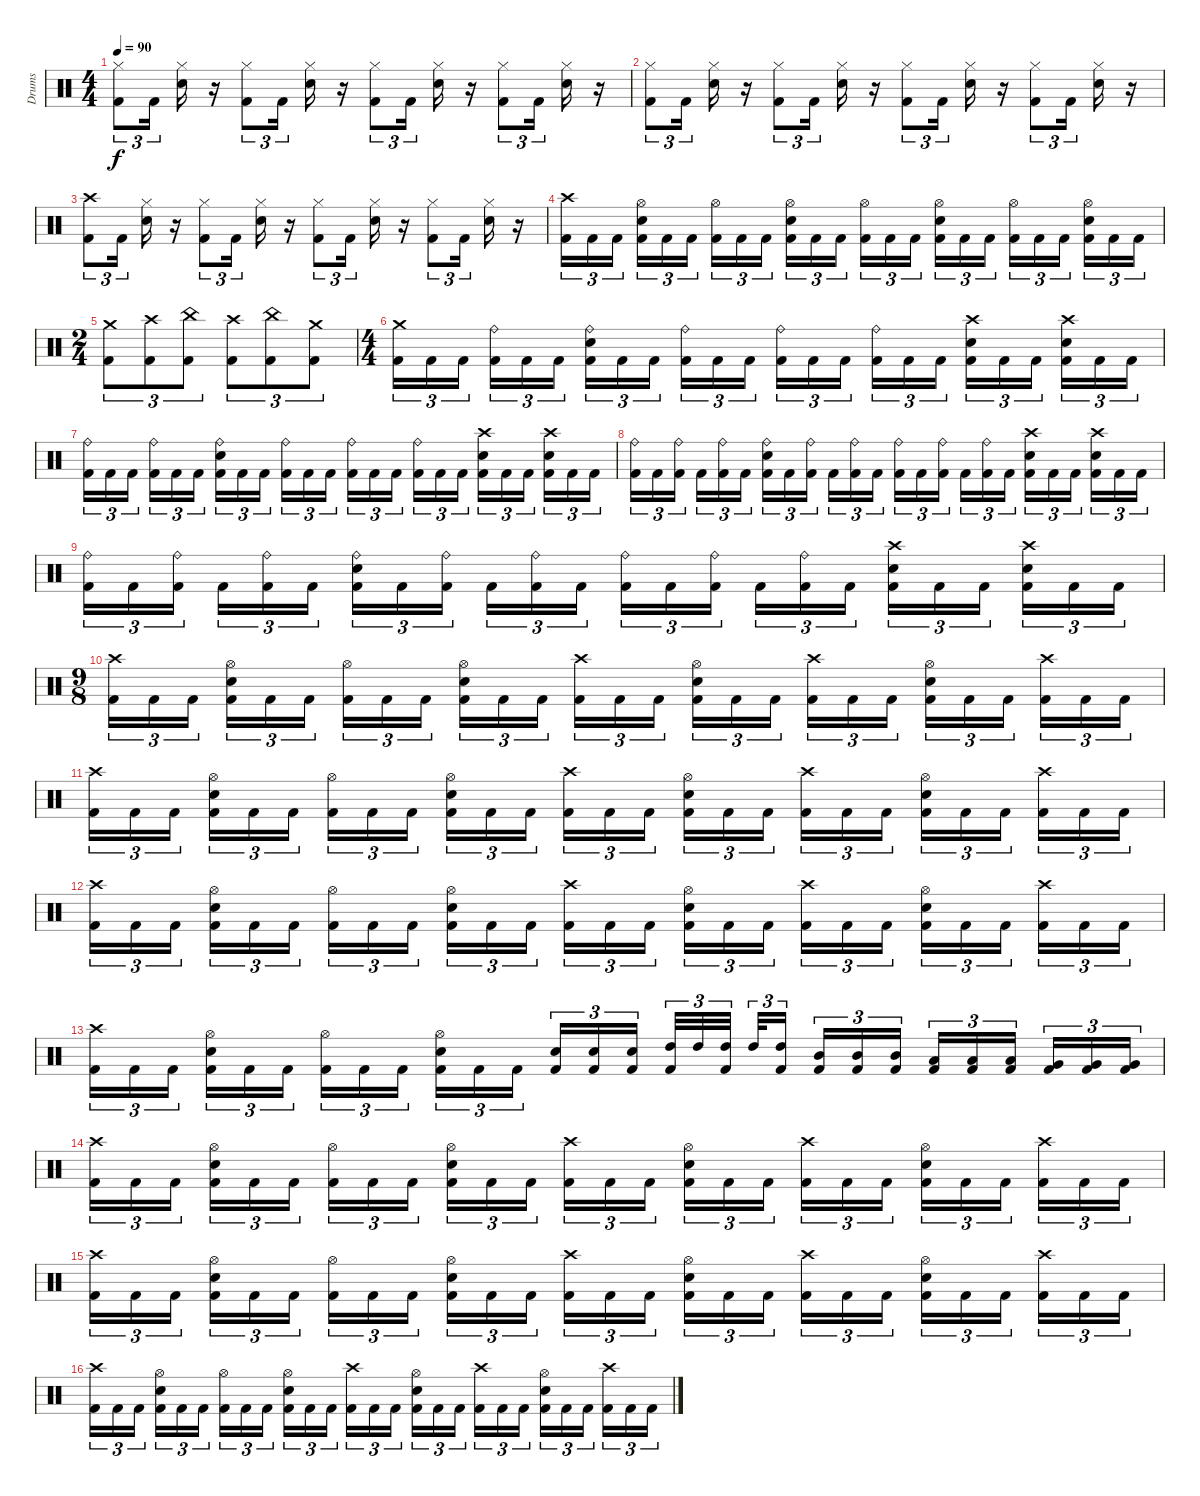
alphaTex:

\track ("Drums" "Drums") {instrument percussion}
\staff {score}
\articulation defaults
\ts (4 4)
\tempo 90
\clef neutral
\ks c
("Kick (hit) 2" "Hi-Hat (closed)").8{tu (3 2) dy f} "Kick (hit) 2".16{tu (3 2)} ("Electric Snare (hit)" "Hi-Hat (closed)").16 r.16 ("Kick (hit) 2" "Hi-Hat (closed)").8{tu (3 2)} "Kick (hit) 2".16{tu (3 2)} ("Electric Snare (hit)" "Hi-Hat (closed)").16 r.16 ("Kick (hit) 2" "Hi-Hat (closed)").8{tu (3 2)} "Kick (hit) 2".16{tu (3 2)} ("Electric Snare (hit)" "Hi-Hat (closed)").16 r.16 ("Kick (hit) 2" "Hi-Hat (closed)").8{tu (3 2)} "Kick (hit) 2".16{tu (3 2)} ("Electric Snare (hit)" "Hi-Hat (closed)").16 r.16 |
("Hi-Hat (closed)" "Kick (hit) 2").8{tu (3 2)} "Kick (hit) 2".16{tu (3 2)} ("Hi-Hat (closed)" "Electric Snare (hit)").16 r.16 ("Hi-Hat (closed)" "Kick (hit) 2").8{tu (3 2)} "Kick (hit) 2".16{tu (3 2)} ("Hi-Hat (closed)" "Electric Snare (hit)").16 r.16 ("Hi-Hat (closed)" "Kick (hit) 2").8{tu (3 2)} "Kick (hit) 2".16{tu (3 2)} ("Hi-Hat (closed)" "Electric Snare (hit)").16 r.16 ("Hi-Hat (closed)" "Kick (hit) 2").8{tu (3 2)} "Kick (hit) 2".16{tu (3 2)} ("Hi-Hat (closed)" "Electric Snare (hit)").16 r.16 |
("Kick (hit) 2" "Crash high (hit)").8{tu (3 2)} "Kick (hit) 2".16{tu (3 2)} ("Electric Snare (hit)" "Hi-Hat (closed)").16 r.16 ("Kick (hit) 2" "Hi-Hat (closed)").8{tu (3 2)} "Kick (hit) 2".16{tu (3 2)} ("Electric Snare (hit)" "Hi-Hat (closed)").16 r.16 ("Kick (hit) 2" "Hi-Hat (closed)").8{tu (3 2)} "Kick (hit) 2".16{tu (3 2)} ("Electric Snare (hit)" "Hi-Hat (closed)").16 r.16 ("Kick (hit) 2" "Hi-Hat (closed)").8{tu (3 2)} "Kick (hit) 2".16{tu (3 2)} ("Electric Snare (hit)" "Hi-Hat (closed)").16 r.16 |
("Crash high (hit)" "Kick (hit) 2").16{tu (3 2)} "Kick (hit) 2".16{tu (3 2)} "Kick (hit) 2".16{tu (3 2) beam splitsecondary} ("Electric Snare (hit)" "Hi-Hat (open)" "Kick (hit) 2").16{tu (3 2)} "Kick (hit) 2".16{tu (3 2)} "Kick (hit) 2".16{tu (3 2)} ("Hi-Hat (open)" "Kick (hit) 2").16{tu (3 2)} "Kick (hit) 2".16{tu (3 2)} "Kick (hit) 2".16{tu (3 2) beam splitsecondary} ("Electric Snare (hit)" "Hi-Hat (open)" "Kick (hit) 2").16{tu (3 2)} "Kick (hit) 2".16{tu (3 2)} "Kick (hit) 2".16{tu (3 2)} ("Hi-Hat (open)" "Kick (hit) 2").16{tu (3 2)} "Kick (hit) 2".16{tu (3 2)} "Kick (hit) 2".16{tu (3 2) beam splitsecondary} ("Electric Snare (hit)" "Hi-Hat (open)" "Kick (hit) 2").16{tu (3 2)} "Kick (hit) 2".16{tu (3 2)} "Kick (hit) 2".16{tu (3 2)} ("Hi-Hat (open)" "Kick (hit) 2").16{tu (3 2)} "Kick (hit) 2".16{tu (3 2)} "Kick (hit) 2".16{tu (3 2) beam splitsecondary} ("Electric Snare (hit)" "Hi-Hat (open)" "Kick (hit) 2").16{tu (3 2)} "Kick (hit) 2".16{tu (3 2)} "Kick (hit) 2".16{tu (3 2)} |
\ts (2 4)
("Crash medium (hit)" "Kick (hit) 2").8{tu (3 2)} ("Crash high (hit)" "Kick (hit) 2").8{tu (3 2)} ("China (hit)" "Kick (hit) 2").8{tu (3 2)} ("Crash high (hit)" "Kick (hit) 2").8{tu (3 2)} ("China (hit)" "Kick (hit) 2").8{tu (3 2)} ("Crash medium (hit)" "Kick (hit) 2").8{tu (3 2)} |
\ts (4 4)
("Crash medium (hit)" "Kick (hit) 2").16{tu (3 2)} "Kick (hit) 2".16{tu (3 2)} "Kick (hit) 2".16{tu (3 2) beam splitsecondary} ("Ride (bell)" "Kick (hit) 2").16{tu (3 2)} "Kick (hit) 2".16{tu (3 2)} "Kick (hit) 2".16{tu (3 2)} ("Ride (bell)" "Electric Snare (hit)" "Kick (hit) 2").16{tu (3 2)} "Kick (hit) 2".16{tu (3 2)} "Kick (hit) 2".16{tu (3 2) beam splitsecondary} ("Ride (bell)" "Kick (hit) 2").16{tu (3 2)} "Kick (hit) 2".16{tu (3 2)} "Kick (hit) 2".16{tu (3 2)} ("Ride (bell)" "Kick (hit) 2").16{tu (3 2)} "Kick (hit) 2".16{tu (3 2)} "Kick (hit) 2".16{tu (3 2) beam splitsecondary} ("Ride (bell)" "Kick (hit) 2").16{tu (3 2)} "Kick (hit) 2".16{tu (3 2)} "Kick (hit) 2".16{tu (3 2)} ("Electric Snare (hit)" "Kick (hit) 2" "Crash high (hit)").16{tu (3 2)} "Kick (hit) 2".16{tu (3 2)} "Kick (hit) 2".16{tu (3 2) beam splitsecondary} ("Kick (hit) 2" "Crash high (hit)" "Electric Snare (hit)").16{tu (3 2)} "Kick (hit) 2".16{tu (3 2)} "Kick (hit) 2".16{tu (3 2)} |
("Ride (bell)" "Kick (hit) 2").16{tu (3 2)} "Kick (hit) 2".16{tu (3 2)} "Kick (hit) 2".16{tu (3 2) beam splitsecondary} ("Kick (hit) 2" "Ride (bell)").16{tu (3 2)} "Kick (hit) 2".16{tu (3 2)} "Kick (hit) 2".16{tu (3 2)} ("Kick (hit) 2" "Electric Snare (hit)" "Ride (bell)").16{tu (3 2)} "Kick (hit) 2".16{tu (3 2)} "Kick (hit) 2".16{tu (3 2) beam splitsecondary} ("Kick (hit) 2" "Ride (bell)").16{tu (3 2)} "Kick (hit) 2".16{tu (3 2)} "Kick (hit) 2".16{tu (3 2)} ("Kick (hit) 2" "Ride (bell)").16{tu (3 2)} "Kick (hit) 2".16{tu (3 2)} "Kick (hit) 2".16{tu (3 2) beam splitsecondary} ("Kick (hit) 2" "Ride (bell)").16{tu (3 2)} "Kick (hit) 2".16{tu (3 2)} "Kick (hit) 2".16{tu (3 2)} ("Crash high (hit)" "Kick (hit) 2" "Electric Snare (hit)").16{tu (3 2)} "Kick (hit) 2".16{tu (3 2)} "Kick (hit) 2".16{tu (3 2) beam splitsecondary} ("Electric Snare (hit)" "Crash high (hit)" "Kick (hit) 2").16{tu (3 2)} "Kick (hit) 2".16{tu (3 2)} "Kick (hit) 2".16{tu (3 2)} |
("Kick (hit) 2" "Ride (bell)").16{tu (3 2)} "Kick (hit) 2".16{tu (3 2)} ("Kick (hit) 2" "Ride (bell)").16{tu (3 2) beam splitsecondary} "Kick (hit) 2".16{tu (3 2)} ("Kick (hit) 2" "Ride (bell)").16{tu (3 2)} "Kick (hit) 2".16{tu (3 2)} ("Kick (hit) 2" "Ride (bell)" "Electric Snare (hit)").16{tu (3 2)} "Kick (hit) 2".16{tu (3 2)} ("Kick (hit) 2" "Ride (bell)").16{tu (3 2) beam splitsecondary} "Kick (hit) 2".16{tu (3 2)} ("Kick (hit) 2" "Ride (bell)").16{tu (3 2)} "Kick (hit) 2".16{tu (3 2)} ("Kick (hit) 2" "Ride (bell)").16{tu (3 2)} "Kick (hit) 2".16{tu (3 2)} ("Kick (hit) 2" "Ride (bell)").16{tu (3 2) beam splitsecondary} "Kick (hit) 2".16{tu (3 2)} ("Kick (hit) 2" "Ride (bell)").16{tu (3 2)} "Kick (hit) 2".16{tu (3 2)} ("Kick (hit) 2" "Electric Snare (hit)" "Crash high (hit)").16{tu (3 2)} "Kick (hit) 2".16{tu (3 2)} "Kick (hit) 2".16{tu (3 2) beam splitsecondary} ("Kick (hit) 2" "Crash high (hit)" "Electric Snare (hit)").16{tu (3 2)} "Kick (hit) 2".16{tu (3 2)} "Kick (hit) 2".16{tu (3 2)} |
("Ride (bell)" "Kick (hit) 2").16{tu (3 2)} "Kick (hit) 2".16{tu (3 2)} ("Ride (bell)" "Kick (hit) 2").16{tu (3 2) beam splitsecondary} "Kick (hit) 2".16{tu (3 2)} ("Ride (bell)" "Kick (hit) 2").16{tu (3 2)} "Kick (hit) 2".16{tu (3 2)} ("Electric Snare (hit)" "Ride (bell)" "Kick (hit) 2").16{tu (3 2)} "Kick (hit) 2".16{tu (3 2)} ("Ride (bell)" "Kick (hit) 2").16{tu (3 2) beam splitsecondary} "Kick (hit) 2".16{tu (3 2)} ("Ride (bell)" "Kick (hit) 2").16{tu (3 2)} "Kick (hit) 2".16{tu (3 2)} ("Ride (bell)" "Kick (hit) 2").16{tu (3 2)} "Kick (hit) 2".16{tu (3 2)} ("Ride (bell)" "Kick (hit) 2").16{tu (3 2) beam splitsecondary} "Kick (hit) 2".16{tu (3 2)} ("Ride (bell)" "Kick (hit) 2").16{tu (3 2)} "Kick (hit) 2".16{tu (3 2)} ("Crash high (hit)" "Electric Snare (hit)" "Kick (hit) 2").16{tu (3 2)} "Kick (hit) 2".16{tu (3 2)} "Kick (hit) 2".16{tu (3 2) beam splitsecondary} ("Electric Snare (hit)" "Crash high (hit)" "Kick (hit) 2").16{tu (3 2)} "Kick (hit) 2".16{tu (3 2)} "Kick (hit) 2".16{tu (3 2)} |
\ts (9 8)
("Crash high (hit)" "Kick (hit) 2").16{tu (3 2)} "Kick (hit) 2".16{tu (3 2)} "Kick (hit) 2".16{tu (3 2) beam splitsecondary} ("Hi-Hat (open)" "Electric Snare (hit)" "Kick (hit) 2").16{tu (3 2)} "Kick (hit) 2".16{tu (3 2)} "Kick (hit) 2".16{tu (3 2) beam splitsecondary} ("Hi-Hat (open)" "Kick (hit) 2").16{tu (3 2)} "Kick (hit) 2".16{tu (3 2)} "Kick (hit) 2".16{tu (3 2)} ("Hi-Hat (open)" "Electric Snare (hit)" "Kick (hit) 2").16{tu (3 2)} "Kick (hit) 2".16{tu (3 2)} "Kick (hit) 2".16{tu (3 2) beam splitsecondary} ("Crash high (hit)" "Kick (hit) 2").16{tu (3 2)} "Kick (hit) 2".16{tu (3 2)} "Kick (hit) 2".16{tu (3 2) beam splitsecondary} ("Hi-Hat (open)" "Electric Snare (hit)" "Kick (hit) 2").16{tu (3 2)} "Kick (hit) 2".16{tu (3 2)} "Kick (hit) 2".16{tu (3 2)} ("Crash high (hit)" "Kick (hit) 2").16{tu (3 2)} "Kick (hit) 2".16{tu (3 2)} "Kick (hit) 2".16{tu (3 2) beam splitsecondary} ("Hi-Hat (open)" "Electric Snare (hit)" "Kick (hit) 2").16{tu (3 2)} "Kick (hit) 2".16{tu (3 2)} "Kick (hit) 2".16{tu (3 2) beam splitsecondary} ("Crash high (hit)" "Kick (hit) 2").16{tu (3 2)} "Kick (hit) 2".16{tu (3 2)} "Kick (hit) 2".16{tu (3 2)} |
("Kick (hit) 2" "Crash high (hit)").16{tu (3 2)} "Kick (hit) 2".16{tu (3 2)} "Kick (hit) 2".16{tu (3 2) beam splitsecondary} ("Hi-Hat (open)" "Kick (hit) 2" "Electric Snare (hit)").16{tu (3 2)} "Kick (hit) 2".16{tu (3 2)} "Kick (hit) 2".16{tu (3 2) beam splitsecondary} ("Hi-Hat (open)" "Kick (hit) 2").16{tu (3 2)} "Kick (hit) 2".16{tu (3 2)} "Kick (hit) 2".16{tu (3 2)} ("Hi-Hat (open)" "Kick (hit) 2" "Electric Snare (hit)").16{tu (3 2)} "Kick (hit) 2".16{tu (3 2)} "Kick (hit) 2".16{tu (3 2) beam splitsecondary} ("Kick (hit) 2" "Crash high (hit)").16{tu (3 2)} "Kick (hit) 2".16{tu (3 2)} "Kick (hit) 2".16{tu (3 2) beam splitsecondary} ("Hi-Hat (open)" "Kick (hit) 2" "Electric Snare (hit)").16{tu (3 2)} "Kick (hit) 2".16{tu (3 2)} "Kick (hit) 2".16{tu (3 2)} ("Kick (hit) 2" "Crash high (hit)").16{tu (3 2)} "Kick (hit) 2".16{tu (3 2)} "Kick (hit) 2".16{tu (3 2) beam splitsecondary} ("Hi-Hat (open)" "Kick (hit) 2" "Electric Snare (hit)").16{tu (3 2)} "Kick (hit) 2".16{tu (3 2)} "Kick (hit) 2".16{tu (3 2) beam splitsecondary} ("Kick (hit) 2" "Crash high (hit)").16{tu (3 2)} "Kick (hit) 2".16{tu (3 2)} "Kick (hit) 2".16{tu (3 2)} |
("Crash high (hit)" "Kick (hit) 2").16{tu (3 2)} "Kick (hit) 2".16{tu (3 2)} "Kick (hit) 2".16{tu (3 2) beam splitsecondary} ("Electric Snare (hit)" "Kick (hit) 2" "Hi-Hat (open)").16{tu (3 2)} "Kick (hit) 2".16{tu (3 2)} "Kick (hit) 2".16{tu (3 2) beam splitsecondary} ("Kick (hit) 2" "Hi-Hat (open)").16{tu (3 2)} "Kick (hit) 2".16{tu (3 2)} "Kick (hit) 2".16{tu (3 2)} ("Electric Snare (hit)" "Kick (hit) 2" "Hi-Hat (open)").16{tu (3 2)} "Kick (hit) 2".16{tu (3 2)} "Kick (hit) 2".16{tu (3 2) beam splitsecondary} ("Crash high (hit)" "Kick (hit) 2").16{tu (3 2)} "Kick (hit) 2".16{tu (3 2)} "Kick (hit) 2".16{tu (3 2) beam splitsecondary} ("Electric Snare (hit)" "Kick (hit) 2" "Hi-Hat (open)").16{tu (3 2)} "Kick (hit) 2".16{tu (3 2)} "Kick (hit) 2".16{tu (3 2)} ("Crash high (hit)" "Kick (hit) 2").16{tu (3 2)} "Kick (hit) 2".16{tu (3 2)} "Kick (hit) 2".16{tu (3 2) beam splitsecondary} ("Electric Snare (hit)" "Kick (hit) 2" "Hi-Hat (open)").16{tu (3 2)} "Kick (hit) 2".16{tu (3 2)} "Kick (hit) 2".16{tu (3 2) beam splitsecondary} ("Crash high (hit)" "Kick (hit) 2").16{tu (3 2)} "Kick (hit) 2".16{tu (3 2)} "Kick (hit) 2".16{tu (3 2)} |
("Crash high (hit)" "Kick (hit) 2").16{tu (3 2)} "Kick (hit) 2".16{tu (3 2)} "Kick (hit) 2".16{tu (3 2) beam splitsecondary} ("Electric Snare (hit)" "Kick (hit) 2" "Hi-Hat (open)").16{tu (3 2)} "Kick (hit) 2".16{tu (3 2)} "Kick (hit) 2".16{tu (3 2) beam splitsecondary} ("Kick (hit) 2" "Hi-Hat (open)").16{tu (3 2)} "Kick (hit) 2".16{tu (3 2)} "Kick (hit) 2".16{tu (3 2)} ("Electric Snare (hit)" "Kick (hit) 2" "Hi-Hat (open)").16{tu (3 2)} "Kick (hit) 2".16{tu (3 2)} "Kick (hit) 2".16{tu (3 2) beam splitsecondary} ("Electric Snare (hit)" "Kick (hit) 2").16{tu (3 2)} ("Electric Snare (hit)" "Kick (hit) 2").16{tu (3 2)} ("Electric Snare (hit)" "Kick (hit) 2").16{tu (3 2) beam splitsecondary} ("High Tom (hit)" "Kick (hit) 2").32{tu (3 2)} "High Tom (hit)".32{tu (3 2)} ("High Tom (hit)" "Kick (hit) 2").32{tu (3 2) beam splitsecondary} "High Tom (hit)".32{tu (3 2)} ("High Tom (hit)" "Kick (hit) 2").16{tu (3 2)} ("Mid Tom (hit)" "Kick (hit) 2").16{tu (3 2)} ("Mid Tom (hit)" "Kick (hit) 2").16{tu (3 2)} ("Mid Tom (hit)" "Kick (hit) 2").16{tu (3 2) beam splitsecondary} ("Low Tom (hit)" "Kick (hit) 2").16{tu (3 2)} ("Low Tom (hit)" "Kick (hit) 2").16{tu (3 2)} ("Low Tom (hit)" "Kick (hit) 2").16{tu (3 2) beam splitsecondary} ("Very Low Tom (hit)" "Kick (hit) 2").16{tu (3 2)} ("Very Low Tom (hit)" "Kick (hit) 2").16{tu (3 2)} ("Very Low Tom (hit)" "Kick (hit) 2").16{tu (3 2)} |
("Kick (hit) 2" "Crash high (hit)").16{tu (3 2)} "Kick (hit) 2".16{tu (3 2)} "Kick (hit) 2".16{tu (3 2) beam splitsecondary} ("Kick (hit) 2" "Electric Snare (hit)" "Hi-Hat (open)").16{tu (3 2)} "Kick (hit) 2".16{tu (3 2)} "Kick (hit) 2".16{tu (3 2) beam splitsecondary} ("Kick (hit) 2" "Hi-Hat (open)").16{tu (3 2)} "Kick (hit) 2".16{tu (3 2)} "Kick (hit) 2".16{tu (3 2)} ("Kick (hit) 2" "Electric Snare (hit)" "Hi-Hat (open)").16{tu (3 2)} "Kick (hit) 2".16{tu (3 2)} "Kick (hit) 2".16{tu (3 2) beam splitsecondary} ("Kick (hit) 2" "Crash high (hit)").16{tu (3 2)} "Kick (hit) 2".16{tu (3 2)} "Kick (hit) 2".16{tu (3 2) beam splitsecondary} ("Kick (hit) 2" "Electric Snare (hit)" "Hi-Hat (open)").16{tu (3 2)} "Kick (hit) 2".16{tu (3 2)} "Kick (hit) 2".16{tu (3 2)} ("Kick (hit) 2" "Crash high (hit)").16{tu (3 2)} "Kick (hit) 2".16{tu (3 2)} "Kick (hit) 2".16{tu (3 2) beam splitsecondary} ("Kick (hit) 2" "Electric Snare (hit)" "Hi-Hat (open)").16{tu (3 2)} "Kick (hit) 2".16{tu (3 2)} "Kick (hit) 2".16{tu (3 2) beam splitsecondary} ("Kick (hit) 2" "Crash high (hit)").16{tu (3 2)} "Kick (hit) 2".16{tu (3 2)} "Kick (hit) 2".16{tu (3 2)} |
("Crash high (hit)" "Kick (hit) 2").16{tu (3 2)} "Kick (hit) 2".16{tu (3 2)} "Kick (hit) 2".16{tu (3 2) beam splitsecondary} ("Electric Snare (hit)" "Kick (hit) 2" "Hi-Hat (open)").16{tu (3 2)} "Kick (hit) 2".16{tu (3 2)} "Kick (hit) 2".16{tu (3 2) beam splitsecondary} ("Kick (hit) 2" "Hi-Hat (open)").16{tu (3 2)} "Kick (hit) 2".16{tu (3 2)} "Kick (hit) 2".16{tu (3 2)} ("Electric Snare (hit)" "Kick (hit) 2" "Hi-Hat (open)").16{tu (3 2)} "Kick (hit) 2".16{tu (3 2)} "Kick (hit) 2".16{tu (3 2) beam splitsecondary} ("Crash high (hit)" "Kick (hit) 2").16{tu (3 2)} "Kick (hit) 2".16{tu (3 2)} "Kick (hit) 2".16{tu (3 2) beam splitsecondary} ("Electric Snare (hit)" "Kick (hit) 2" "Hi-Hat (open)").16{tu (3 2)} "Kick (hit) 2".16{tu (3 2)} "Kick (hit) 2".16{tu (3 2)} ("Crash high (hit)" "Kick (hit) 2").16{tu (3 2)} "Kick (hit) 2".16{tu (3 2)} "Kick (hit) 2".16{tu (3 2) beam splitsecondary} ("Electric Snare (hit)" "Kick (hit) 2" "Hi-Hat (open)").16{tu (3 2)} "Kick (hit) 2".16{tu (3 2)} "Kick (hit) 2".16{tu (3 2) beam splitsecondary} ("Crash high (hit)" "Kick (hit) 2").16{tu (3 2)} "Kick (hit) 2".16{tu (3 2)} "Kick (hit) 2".16{tu (3 2)} |
("Kick (hit) 2" "Crash high (hit)").16{tu (3 2)} "Kick (hit) 2".16{tu (3 2)} "Kick (hit) 2".16{tu (3 2) beam splitsecondary} ("Hi-Hat (open)" "Kick (hit) 2" "Electric Snare (hit)").16{tu (3 2)} "Kick (hit) 2".16{tu (3 2)} "Kick (hit) 2".16{tu (3 2) beam splitsecondary} ("Hi-Hat (open)" "Kick (hit) 2").16{tu (3 2)} "Kick (hit) 2".16{tu (3 2)} "Kick (hit) 2".16{tu (3 2)} ("Hi-Hat (open)" "Kick (hit) 2" "Electric Snare (hit)").16{tu (3 2)} "Kick (hit) 2".16{tu (3 2)} "Kick (hit) 2".16{tu (3 2) beam splitsecondary} ("Kick (hit) 2" "Crash high (hit)").16{tu (3 2)} "Kick (hit) 2".16{tu (3 2)} "Kick (hit) 2".16{tu (3 2) beam splitsecondary} ("Hi-Hat (open)" "Kick (hit) 2" "Electric Snare (hit)").16{tu (3 2)} "Kick (hit) 2".16{tu (3 2)} "Kick (hit) 2".16{tu (3 2)} ("Kick (hit) 2" "Crash high (hit)").16{tu (3 2)} "Kick (hit) 2".16{tu (3 2)} "Kick (hit) 2".16{tu (3 2) beam splitsecondary} ("Hi-Hat (open)" "Kick (hit) 2" "Electric Snare (hit)").16{tu (3 2)} "Kick (hit) 2".16{tu (3 2)} "Kick (hit) 2".16{tu (3 2) beam splitsecondary} ("Kick (hit) 2" "Crash high (hit)").16{tu (3 2)} "Kick (hit) 2".16{tu (3 2)} "Kick (hit) 2".16{tu (3 2)}
